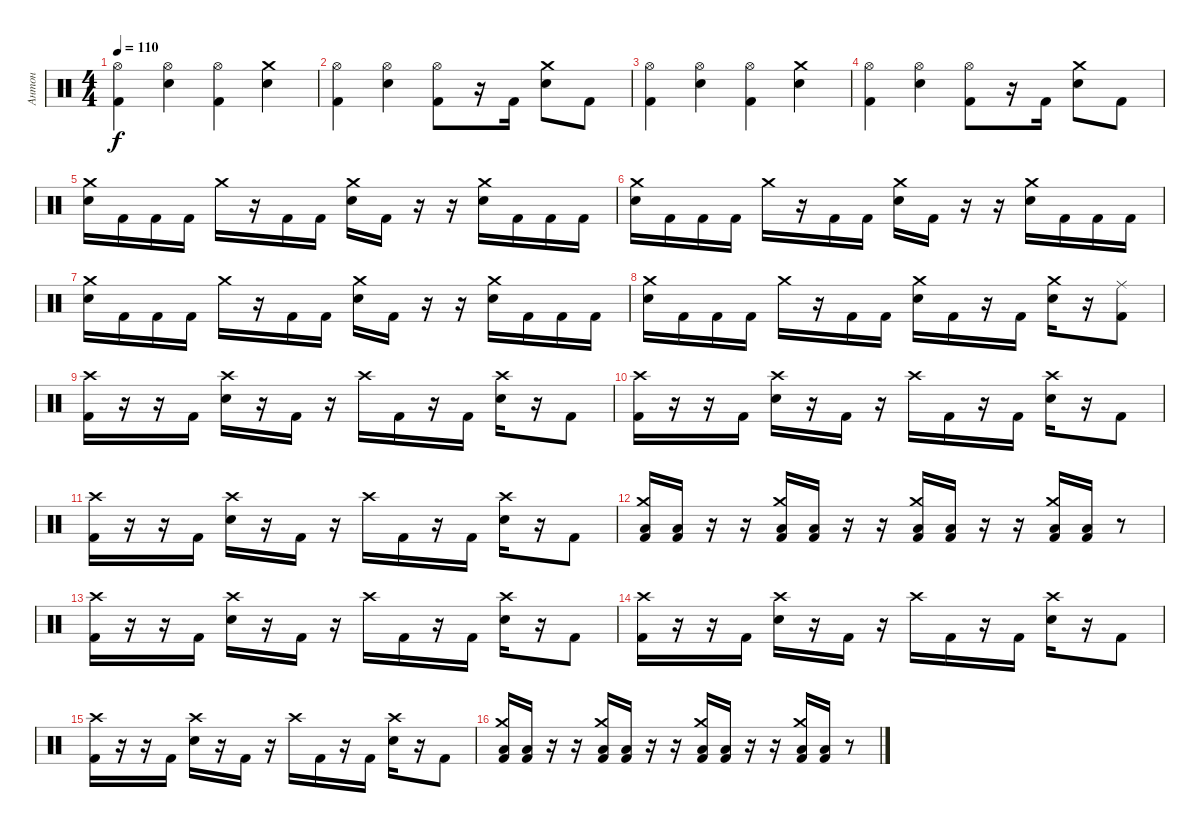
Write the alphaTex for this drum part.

\track ("Антон" "Антон") {instrument percussion}
\staff {score}
\articulation defaults
\ts (4 4)
\tempo 110
\clef neutral
\ks c
("Hi-Hat (open)" "Kick (hit) 2").4{dy f} ("Hi-Hat (open)" "Electric Snare (hit)").4 ("Hi-Hat (open)" "Kick (hit) 2").4 ("Crash medium (hit)" "Electric Snare (hit)").4 |
("Hi-Hat (open)" "Kick (hit) 2").4 ("Hi-Hat (open)" "Electric Snare (hit)").4 ("Hi-Hat (open)" "Kick (hit) 2").8 r.16 "Kick (hit) 2".16 ("Crash medium (hit)" "Electric Snare (hit)").8 "Kick (hit) 2".8 |
("Hi-Hat (open)" "Kick (hit) 2").4 ("Hi-Hat (open)" "Electric Snare (hit)").4 ("Hi-Hat (open)" "Kick (hit) 2").4 ("Crash medium (hit)" "Electric Snare (hit)").4 |
("Hi-Hat (open)" "Kick (hit) 2").4 ("Hi-Hat (open)" "Electric Snare (hit)").4 ("Hi-Hat (open)" "Kick (hit) 2").8 r.16 "Kick (hit) 2".16 ("Crash medium (hit)" "Electric Snare (hit)").8 "Kick (hit) 2".8 |
("Crash medium (hit)" "Electric Snare (hit)").16 "Kick (hit) 2".16 "Kick (hit) 2".16 "Kick (hit) 2".16 "Crash medium (hit)".16 r.16 "Kick (hit) 2".16 "Kick (hit) 2".16 ("Crash medium (hit)" "Electric Snare (hit)").16 "Kick (hit) 2".16 r.16 r.16 ("Crash medium (hit)" "Electric Snare (hit)").16 "Kick (hit) 2".16 "Kick (hit) 2".16 "Kick (hit) 2".16 |
("Crash medium (hit)" "Electric Snare (hit)").16 "Kick (hit) 2".16 "Kick (hit) 2".16 "Kick (hit) 2".16 "Crash medium (hit)".16 r.16 "Kick (hit) 2".16 "Kick (hit) 2".16 ("Crash medium (hit)" "Electric Snare (hit)").16 "Kick (hit) 2".16 r.16 r.16 ("Crash medium (hit)" "Electric Snare (hit)").16 "Kick (hit) 2".16 "Kick (hit) 2".16 "Kick (hit) 2".16 |
("Crash medium (hit)" "Electric Snare (hit)").16 "Kick (hit) 2".16 "Kick (hit) 2".16 "Kick (hit) 2".16 "Crash medium (hit)".16 r.16 "Kick (hit) 2".16 "Kick (hit) 2".16 ("Crash medium (hit)" "Electric Snare (hit)").16 "Kick (hit) 2".16 r.16 r.16 ("Crash medium (hit)" "Electric Snare (hit)").16 "Kick (hit) 2".16 "Kick (hit) 2".16 "Kick (hit) 2".16 |
("Crash medium (hit)" "Electric Snare (hit)").16 "Kick (hit) 2".16 "Kick (hit) 2".16 "Kick (hit) 2".16 "Crash medium (hit)".16 r.16 "Kick (hit) 2".16 "Kick (hit) 2".16 ("Crash medium (hit)" "Electric Snare (hit)").16 "Kick (hit) 2".16 r.16 "Kick (hit) 2".16 ("Crash medium (hit)" "Electric Snare (hit)").16 r.16 ("Ride (middle)" "Kick (hit) 2").8 |
("Crash high (hit)" "Kick (hit) 2").16 r.16 r.16 "Kick (hit) 2".16 ("Crash high (hit)" "Electric Snare (hit)").16 r.16 "Kick (hit) 2".16 r.16 "Crash high (hit)".16 "Kick (hit) 2".16 r.16 "Kick (hit) 2".16 ("Crash high (hit)" "Electric Snare (hit)").16 r.16 "Kick (hit) 2".8 |
("Crash high (hit)" "Kick (hit) 2").16 r.16 r.16 "Kick (hit) 2".16 ("Crash high (hit)" "Electric Snare (hit)").16 r.16 "Kick (hit) 2".16 r.16 "Crash high (hit)".16 "Kick (hit) 2".16 r.16 "Kick (hit) 2".16 ("Crash high (hit)" "Electric Snare (hit)").16 r.16 "Kick (hit) 2".8 |
("Crash high (hit)" "Kick (hit) 2").16 r.16 r.16 "Kick (hit) 2".16 ("Crash high (hit)" "Electric Snare (hit)").16 r.16 "Kick (hit) 2".16 r.16 "Crash high (hit)".16 "Kick (hit) 2".16 r.16 "Kick (hit) 2".16 ("Crash high (hit)" "Electric Snare (hit)").16 r.16 "Kick (hit) 2".8 |
("Crash medium (hit)" "Low Tom (hit)" "Kick (hit) 2").16 ("Low Tom (hit)" "Kick (hit) 2").16 r.16 r.16 ("Crash medium (hit)" "Low Tom (hit)" "Kick (hit) 2").16 ("Low Tom (hit)" "Kick (hit) 2").16 r.16 r.16 ("Crash medium (hit)" "Low Tom (hit)" "Kick (hit) 2").16 ("Low Tom (hit)" "Kick (hit) 2").16 r.16 r.16 ("Crash medium (hit)" "Low Tom (hit)" "Kick (hit) 2").16 ("Low Tom (hit)" "Kick (hit) 2").16 r.8 |
("Crash high (hit)" "Kick (hit) 2").16 r.16 r.16 "Kick (hit) 2".16 ("Crash high (hit)" "Electric Snare (hit)").16 r.16 "Kick (hit) 2".16 r.16 "Crash high (hit)".16 "Kick (hit) 2".16 r.16 "Kick (hit) 2".16 ("Crash high (hit)" "Electric Snare (hit)").16 r.16 "Kick (hit) 2".8 |
("Crash high (hit)" "Kick (hit) 2").16 r.16 r.16 "Kick (hit) 2".16 ("Crash high (hit)" "Electric Snare (hit)").16 r.16 "Kick (hit) 2".16 r.16 "Crash high (hit)".16 "Kick (hit) 2".16 r.16 "Kick (hit) 2".16 ("Crash high (hit)" "Electric Snare (hit)").16 r.16 "Kick (hit) 2".8 |
("Crash high (hit)" "Kick (hit) 2").16 r.16 r.16 "Kick (hit) 2".16 ("Crash high (hit)" "Electric Snare (hit)").16 r.16 "Kick (hit) 2".16 r.16 "Crash high (hit)".16 "Kick (hit) 2".16 r.16 "Kick (hit) 2".16 ("Crash high (hit)" "Electric Snare (hit)").16 r.16 "Kick (hit) 2".8 |
("Crash medium (hit)" "Low Tom (hit)" "Kick (hit) 2").16 ("Low Tom (hit)" "Kick (hit) 2").16 r.16 r.16 ("Crash medium (hit)" "Low Tom (hit)" "Kick (hit) 2").16 ("Low Tom (hit)" "Kick (hit) 2").16 r.16 r.16 ("Crash medium (hit)" "Low Tom (hit)" "Kick (hit) 2").16 ("Low Tom (hit)" "Kick (hit) 2").16 r.16 r.16 ("Crash medium (hit)" "Low Tom (hit)" "Kick (hit) 2").16 ("Low Tom (hit)" "Kick (hit) 2").16 r.8
